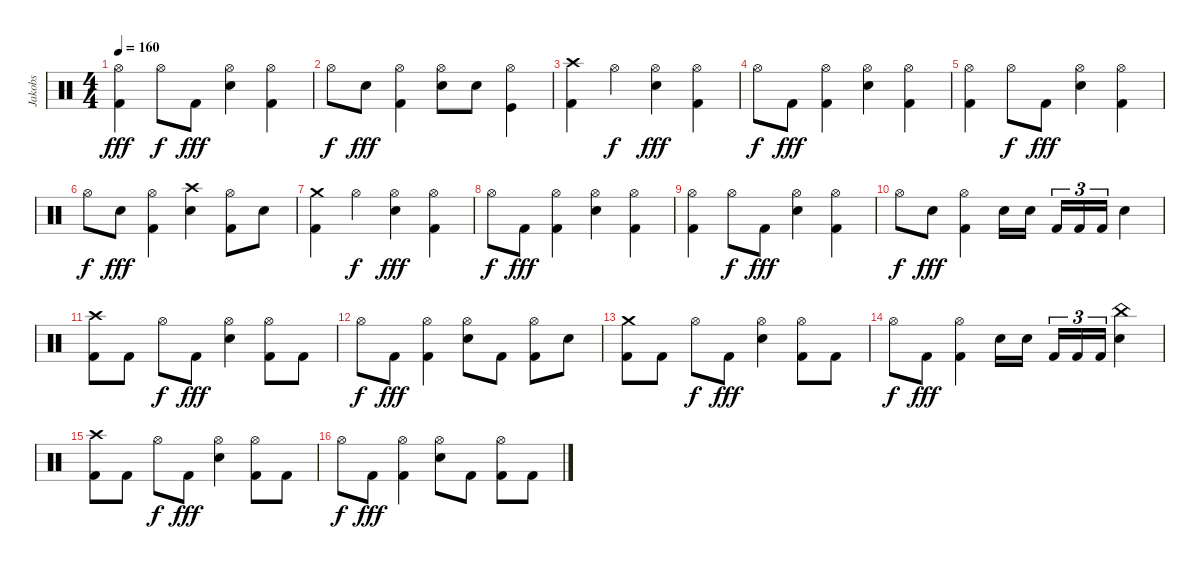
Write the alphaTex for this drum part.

\track ("Jakobs" "Jakobs") {instrument percussion}
\staff {score}
\articulation defaults
\ts (4 4)
\tempo 160
\clef neutral
\ks c
("Hi-Hat (open)" "Kick (hit) 2").4{dy fff} "Hi-Hat (open)".8{dy f} "Kick (hit) 2".8{dy fff} ("Hi-Hat (open)" "Snare (hit) 2").4 ("Hi-Hat (open)" "Kick (hit) 2").4 |
"Hi-Hat (open)".8{dy f} "Snare (hit) 2".8{dy fff} ("Hi-Hat (open)" "Kick (hit) 2").4 ("Hi-Hat (open)" "Snare (hit) 2").8 "Snare (hit) 2".8 ("Hi-Hat (open)" "Kick (hit)").4 |
("Crash high (hit)" "Kick (hit) 2").4 "Hi-Hat (open)".4{dy f} ("Hi-Hat (open)" "Snare (hit) 2").4{dy fff} ("Hi-Hat (open)" "Kick (hit) 2").4 |
"Hi-Hat (open)".8{dy f} "Kick (hit) 2".8{dy fff} ("Hi-Hat (open)" "Kick (hit) 2").4 ("Hi-Hat (open)" "Snare (hit) 2").4 ("Hi-Hat (open)" "Kick (hit) 2").4 |
("Hi-Hat (open)" "Kick (hit) 2").4 "Hi-Hat (open)".8{dy f} "Kick (hit) 2".8{dy fff} ("Hi-Hat (open)" "Snare (hit) 2").4 ("Hi-Hat (open)" "Kick (hit) 2").4 |
"Hi-Hat (open)".8{dy f} "Snare (hit) 2".8{dy fff} ("Hi-Hat (open)" "Kick (hit) 2").4 ("Crash high (hit)" "Snare (hit) 2").4 ("Hi-Hat (open)" "Kick (hit) 2").8 "Snare (hit) 2".8 |
("Crash medium (hit)" "Kick (hit) 2").4 "Hi-Hat (open)".4{dy f} ("Hi-Hat (open)" "Snare (hit) 2").4{dy fff} ("Hi-Hat (open)" "Kick (hit) 2").4 |
"Hi-Hat (open)".8{dy f} "Kick (hit) 2".8{dy fff} ("Hi-Hat (open)" "Kick (hit) 2").4 ("Hi-Hat (open)" "Snare (hit) 2").4 ("Hi-Hat (open)" "Kick (hit) 2").4 |
("Hi-Hat (open)" "Kick (hit) 2").4 "Hi-Hat (open)".8{dy f} "Kick (hit) 2".8{dy fff} ("Hi-Hat (open)" "Snare (hit) 2").4 ("Hi-Hat (open)" "Kick (hit) 2").4 |
"Hi-Hat (open)".8{dy f} "Snare (hit) 2".8{dy fff} ("Hi-Hat (open)" "Kick (hit) 2").4 "Snare (hit) 2".16 "Snare (hit) 2".16 "Kick (hit) 2".16{tu (3 2)} "Kick (hit) 2".16{tu (3 2)} "Kick (hit) 2".16{tu (3 2)} "Snare (hit) 2".4 |
("Crash high (hit)" "Kick (hit) 2").8 "Kick (hit) 2".8 "Hi-Hat (open)".8{dy f} "Kick (hit) 2".8{dy fff} ("Hi-Hat (open)" "Snare (hit) 2").4 ("Hi-Hat (open)" "Kick (hit) 2").8 "Kick (hit) 2".8 |
"Hi-Hat (open)".8{dy f} "Kick (hit) 2".8{dy fff} ("Hi-Hat (open)" "Kick (hit) 2").4 ("Hi-Hat (open)" "Snare (hit) 2").8 "Kick (hit) 2".8 ("Hi-Hat (open)" "Kick (hit) 2").8 "Snare (hit) 2".8 |
("Crash medium (hit)" "Kick (hit) 2").8 "Kick (hit) 2".8 "Hi-Hat (open)".8{dy f} "Kick (hit) 2".8{dy fff} ("Hi-Hat (open)" "Snare (hit) 2").4 ("Hi-Hat (open)" "Kick (hit) 2").8 "Kick (hit) 2".8 |
"Hi-Hat (open)".8{dy f} "Kick (hit) 2".8{dy fff} ("Hi-Hat (open)" "Kick (hit) 2").4 "Snare (hit) 2".16 "Snare (hit) 2".16 "Kick (hit) 2".16{tu (3 2)} "Kick (hit) 2".16{tu (3 2)} "Kick (hit) 2".16{tu (3 2)} ("China (hit)" "Snare (hit) 2").4 |
("Crash high (hit)" "Kick (hit) 2").8 "Kick (hit) 2".8 "Hi-Hat (open)".8{dy f} "Kick (hit) 2".8{dy fff} ("Hi-Hat (open)" "Snare (hit) 2").4 ("Hi-Hat (open)" "Kick (hit) 2").8 "Kick (hit) 2".8 |
"Hi-Hat (open)".8{dy f} "Kick (hit) 2".8{dy fff} ("Hi-Hat (open)" "Kick (hit) 2").4 ("Hi-Hat (open)" "Snare (hit) 2").8 "Kick (hit) 2".8 ("Hi-Hat (open)" "Kick (hit) 2").8 "Kick (hit) 2".8
